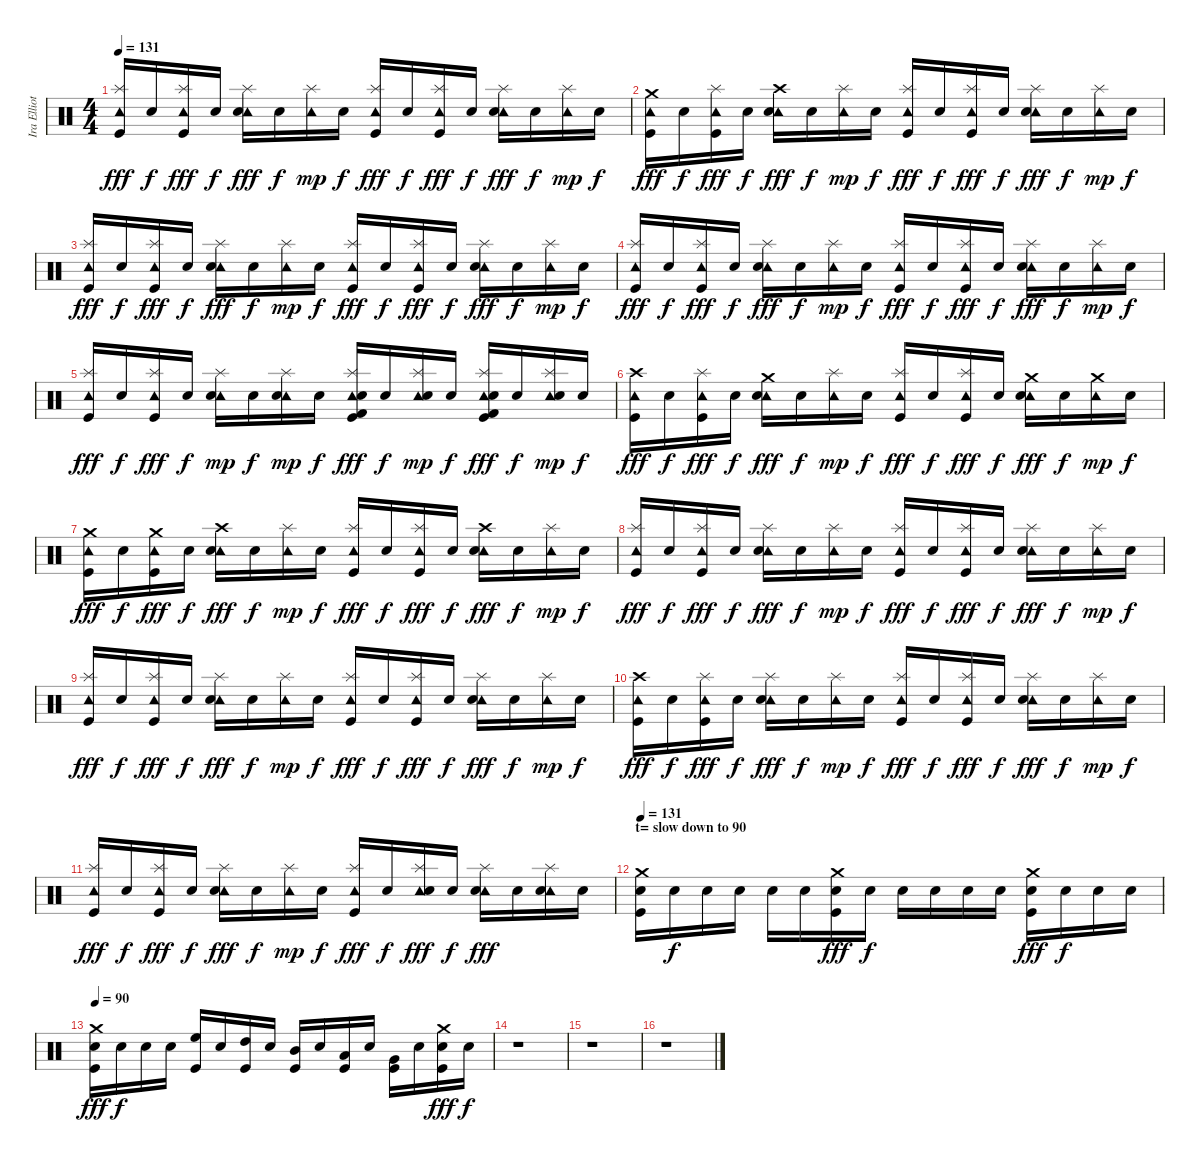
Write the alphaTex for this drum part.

\track ("Ira Elliot - Drums" "Ira Elliot") {instrument percussion}
\staff {score}
\articulation defaults
\ts (4 4)
\tempo 131
\clef neutral
\ks c
("Tambourine (hit)" "Splash (hit)" "Kick (hit)").16{dy fff} "Snare (hit)".16{dy f} ("Tambourine (hit)" "Splash (hit)" "Kick (hit)").16{dy fff} "Snare (hit)".16{dy f} ("Tambourine (hit)" "Splash (hit)" "Electric Snare (hit)").16{dy fff} "Snare (hit)".16{dy f} ("Tambourine (hit)" "Splash (hit)").16{dy mp} "Snare (hit)".16{dy f} ("Tambourine (hit)" "Splash (hit)" "Kick (hit)").16{dy fff} "Snare (hit)".16{dy f} ("Tambourine (hit)" "Splash (hit)" "Kick (hit)").16{dy fff} "Snare (hit)".16{dy f} ("Tambourine (hit)" "Splash (hit)" "Electric Snare (hit)").16{dy fff} "Snare (hit)".16{dy f} ("Tambourine (hit)" "Splash (hit)").16{dy mp} "Snare (hit)".16{dy f} |
("Tambourine (hit)" "Crash medium (hit)" "Kick (hit)").16{dy fff} "Snare (hit)".16{dy f} ("Tambourine (hit)" "Splash (hit)" "Kick (hit)").16{dy fff} "Snare (hit)".16{dy f} ("Tambourine (hit)" "Crash high (hit)" "Electric Snare (hit)").16{dy fff} "Snare (hit)".16{dy f} ("Tambourine (hit)" "Splash (hit)").16{dy mp} "Snare (hit)".16{dy f} ("Tambourine (hit)" "Splash (hit)" "Kick (hit)").16{dy fff} "Snare (hit)".16{dy f} ("Tambourine (hit)" "Splash (hit)" "Kick (hit)").16{dy fff} "Snare (hit)".16{dy f} ("Tambourine (hit)" "Splash (hit)" "Electric Snare (hit)").16{dy fff} "Snare (hit)".16{dy f} ("Tambourine (hit)" "Splash (hit)").16{dy mp} "Snare (hit)".16{dy f} |
("Tambourine (hit)" "Splash (hit)" "Kick (hit)").16{dy fff} "Snare (hit)".16{dy f} ("Tambourine (hit)" "Splash (hit)" "Kick (hit)").16{dy fff} "Snare (hit)".16{dy f} ("Tambourine (hit)" "Splash (hit)" "Electric Snare (hit)").16{dy fff} "Snare (hit)".16{dy f} ("Tambourine (hit)" "Splash (hit)").16{dy mp} "Snare (hit)".16{dy f} ("Tambourine (hit)" "Splash (hit)" "Kick (hit)").16{dy fff} "Snare (hit)".16{dy f} ("Tambourine (hit)" "Splash (hit)" "Kick (hit)").16{dy fff} "Snare (hit)".16{dy f} ("Tambourine (hit)" "Splash (hit)" "Electric Snare (hit)").16{dy fff} "Snare (hit)".16{dy f} ("Tambourine (hit)" "Splash (hit)").16{dy mp} "Snare (hit)".16{dy f} |
("Tambourine (hit)" "Splash (hit)" "Kick (hit)").16{dy fff} "Snare (hit)".16{dy f} ("Tambourine (hit)" "Splash (hit)" "Kick (hit)").16{dy fff} "Snare (hit)".16{dy f} ("Tambourine (hit)" "Splash (hit)" "Electric Snare (hit)").16{dy fff} "Snare (hit)".16{dy f} ("Tambourine (hit)" "Splash (hit)").16{dy mp} "Snare (hit)".16{dy f} ("Tambourine (hit)" "Splash (hit)" "Kick (hit)").16{dy fff} "Snare (hit)".16{dy f} ("Tambourine (hit)" "Splash (hit)" "Kick (hit)").16{dy fff} "Snare (hit)".16{dy f} ("Tambourine (hit)" "Splash (hit)" "Electric Snare (hit)").16{dy fff} "Snare (hit)".16{dy f} ("Tambourine (hit)" "Splash (hit)").16{dy mp} "Snare (hit)".16{dy f} |
("Tambourine (hit)" "Splash (hit)" "Kick (hit)").16{dy fff} "Snare (hit)".16{dy f} ("Tambourine (hit)" "Splash (hit)" "Kick (hit)").16{dy fff} "Snare (hit)".16{dy f} ("Tambourine (hit)" "Splash (hit)" "Electric Snare (hit)").16{dy mp} "Snare (hit)".16{dy f} ("Tambourine (hit)" "Splash (hit)" "Electric Snare (hit)").16{dy mp} "Electric Snare (hit)".16{dy f} ("Tambourine (hit)" "Splash (hit)" "Electric Snare (hit)" "Kick (hit)" "Kick (hit) 2").16{dy fff} "Electric Snare (hit)".16{dy f} ("Tambourine (hit)" "Splash (hit)" "Electric Snare (hit)").16{dy mp} "Electric Snare (hit)".16{dy f} ("Tambourine (hit)" "Splash (hit)" "Electric Snare (hit)" "Kick (hit)" "Kick (hit) 2").16{dy fff} "Electric Snare (hit)".16{dy f} ("Tambourine (hit)" "Splash (hit)" "Electric Snare (hit)").16{dy mp} "Electric Snare (hit)".16{dy f} |
("Tambourine (hit)" "Crash high (hit)" "Kick (hit)").16{dy fff} "Snare (hit)".16{dy f} ("Tambourine (hit)" "Splash (hit)" "Kick (hit)").16{dy fff} "Snare (hit)".16{dy f} ("Tambourine (hit)" "Crash medium (hit)" "Electric Snare (hit)").16{dy fff} "Snare (hit)".16{dy f} ("Tambourine (hit)" "Splash (hit)").16{dy mp} "Snare (hit)".16{dy f} ("Tambourine (hit)" "Splash (hit)" "Kick (hit)").16{dy fff} "Snare (hit)".16{dy f} ("Tambourine (hit)" "Splash (hit)" "Kick (hit)").16{dy fff} "Snare (hit)".16{dy f} ("Tambourine (hit)" "Crash medium (hit)" "Electric Snare (hit)").16{dy fff} "Snare (hit)".16{dy f} ("Tambourine (hit)" "Crash medium (hit)").16{dy mp} "Snare (hit)".16{dy f} |
("Tambourine (hit)" "Crash medium (hit)" "Kick (hit)").16{dy fff} "Snare (hit)".16{dy f} ("Tambourine (hit)" "Crash medium (hit)" "Kick (hit)").16{dy fff} "Snare (hit)".16{dy f} ("Tambourine (hit)" "Crash high (hit)" "Electric Snare (hit)").16{dy fff} "Snare (hit)".16{dy f} ("Tambourine (hit)" "Splash (hit)").16{dy mp} "Snare (hit)".16{dy f} ("Tambourine (hit)" "Splash (hit)" "Kick (hit)").16{dy fff} "Snare (hit)".16{dy f} ("Tambourine (hit)" "Splash (hit)" "Kick (hit)").16{dy fff} "Snare (hit)".16{dy f} ("Tambourine (hit)" "Crash high (hit)" "Electric Snare (hit)").16{dy fff} "Snare (hit)".16{dy f} ("Tambourine (hit)" "Splash (hit)").16{dy mp} "Snare (hit)".16{dy f} |
("Tambourine (hit)" "Splash (hit)" "Kick (hit)").16{dy fff} "Snare (hit)".16{dy f} ("Tambourine (hit)" "Splash (hit)" "Kick (hit)").16{dy fff} "Snare (hit)".16{dy f} ("Tambourine (hit)" "Splash (hit)" "Electric Snare (hit)").16{dy fff} "Snare (hit)".16{dy f} ("Tambourine (hit)" "Splash (hit)").16{dy mp} "Snare (hit)".16{dy f} ("Tambourine (hit)" "Splash (hit)" "Kick (hit)").16{dy fff} "Snare (hit)".16{dy f} ("Tambourine (hit)" "Splash (hit)" "Kick (hit)").16{dy fff} "Snare (hit)".16{dy f} ("Tambourine (hit)" "Splash (hit)" "Electric Snare (hit)").16{dy fff} "Snare (hit)".16{dy f} ("Tambourine (hit)" "Splash (hit)").16{dy mp} "Snare (hit)".16{dy f} |
("Tambourine (hit)" "Splash (hit)" "Kick (hit)").16{dy fff} "Snare (hit)".16{dy f} ("Tambourine (hit)" "Splash (hit)" "Kick (hit)").16{dy fff} "Snare (hit)".16{dy f} ("Tambourine (hit)" "Splash (hit)" "Electric Snare (hit)").16{dy fff} "Snare (hit)".16{dy f} ("Tambourine (hit)" "Splash (hit)").16{dy mp} "Snare (hit)".16{dy f} ("Tambourine (hit)" "Splash (hit)" "Kick (hit)").16{dy fff} "Snare (hit)".16{dy f} ("Tambourine (hit)" "Splash (hit)" "Kick (hit)").16{dy fff} "Snare (hit)".16{dy f} ("Tambourine (hit)" "Splash (hit)" "Electric Snare (hit)").16{dy fff} "Snare (hit)".16{dy f} ("Tambourine (hit)" "Splash (hit)").16{dy mp} "Snare (hit)".16{dy f} |
("Tambourine (hit)" "Crash high (hit)" "Kick (hit)").16{dy fff} "Snare (hit)".16{dy f} ("Tambourine (hit)" "Splash (hit)" "Kick (hit)").16{dy fff} "Snare (hit)".16{dy f} ("Tambourine (hit)" "Splash (hit)" "Electric Snare (hit)").16{dy fff} "Snare (hit)".16{dy f} ("Tambourine (hit)" "Splash (hit)").16{dy mp} "Snare (hit)".16{dy f} ("Tambourine (hit)" "Splash (hit)" "Kick (hit)").16{dy fff} "Snare (hit)".16{dy f} ("Tambourine (hit)" "Splash (hit)" "Kick (hit)").16{dy fff} "Snare (hit)".16{dy f} ("Tambourine (hit)" "Splash (hit)" "Electric Snare (hit)").16{dy fff} "Snare (hit)".16{dy f} ("Tambourine (hit)" "Splash (hit)").16{dy mp} "Snare (hit)".16{dy f} |
("Tambourine (hit)" "Splash (hit)" "Kick (hit)").16{dy fff} "Snare (hit)".16{dy f} ("Tambourine (hit)" "Splash (hit)" "Kick (hit)").16{dy fff} "Snare (hit)".16{dy f} ("Tambourine (hit)" "Splash (hit)" "Electric Snare (hit)").16{dy fff} "Snare (hit)".16{dy f} ("Tambourine (hit)" "Splash (hit)").16{dy mp} "Snare (hit)".16{dy f} ("Tambourine (hit)" "Splash (hit)" "Kick (hit)").16{dy fff} "Snare (hit)".16{dy f} ("Tambourine (hit)" "Splash (hit)" "Electric Snare (hit)").16{dy fff} "Snare (hit)".16{dy f} ("Tambourine (hit)" "Splash (hit)" "Electric Snare (hit)").16{dy fff} "Electric Snare (hit)".16 ("Tambourine (hit)" "Splash (hit)" "Electric Snare (hit)").16 "Electric Snare (hit)".16 |
\section ("" "t= slow down to 90")
\tempo 131
("Crash medium (hit)" "Electric Snare (hit)" "Kick (hit)").16{volume 16 balance 8} "Snare (hit)".16{dy f} "Snare (hit)".16 "Snare (hit)".16 "Snare (hit)".16 "Snare (hit)".16 ("Crash medium (hit)" "Electric Snare (hit)" "Kick (hit)").16{dy fff} "Snare (hit)".16{dy f} "Snare (hit)".16 "Snare (hit)".16 "Snare (hit)".16 "Snare (hit)".16 ("Crash medium (hit)" "Electric Snare (hit)" "Kick (hit)").16{dy fff} "Snare (hit)".16{dy f} "Snare (hit)".16 "Snare (hit)".16 |
\tempo 90
("Crash medium (hit)" "Electric Snare (hit)" "Kick (hit)").16{dy fff} "Snare (hit)".16{dy f} "Snare (hit)".16 "Snare (hit)".16 ("High Floor Tom (hit)" "Kick (hit)").16 "Snare (hit)".16 ("High Tom (hit)" "Kick (hit)").16 "Snare (hit)".16 ("Mid Tom (hit)" "Kick (hit)").16 "Snare (hit)".16 ("Low Tom (hit)" "Kick (hit)").16 "Snare (hit)".16 ("Very Low Tom (hit)" "Kick (hit)").16 "Snare (hit)".16 ("Crash medium (hit)" "Electric Snare (hit)" "Kick (hit)").16{dy fff} "Snare (hit)".16{dy f} |
r.1 |
r.1 |
r.1
